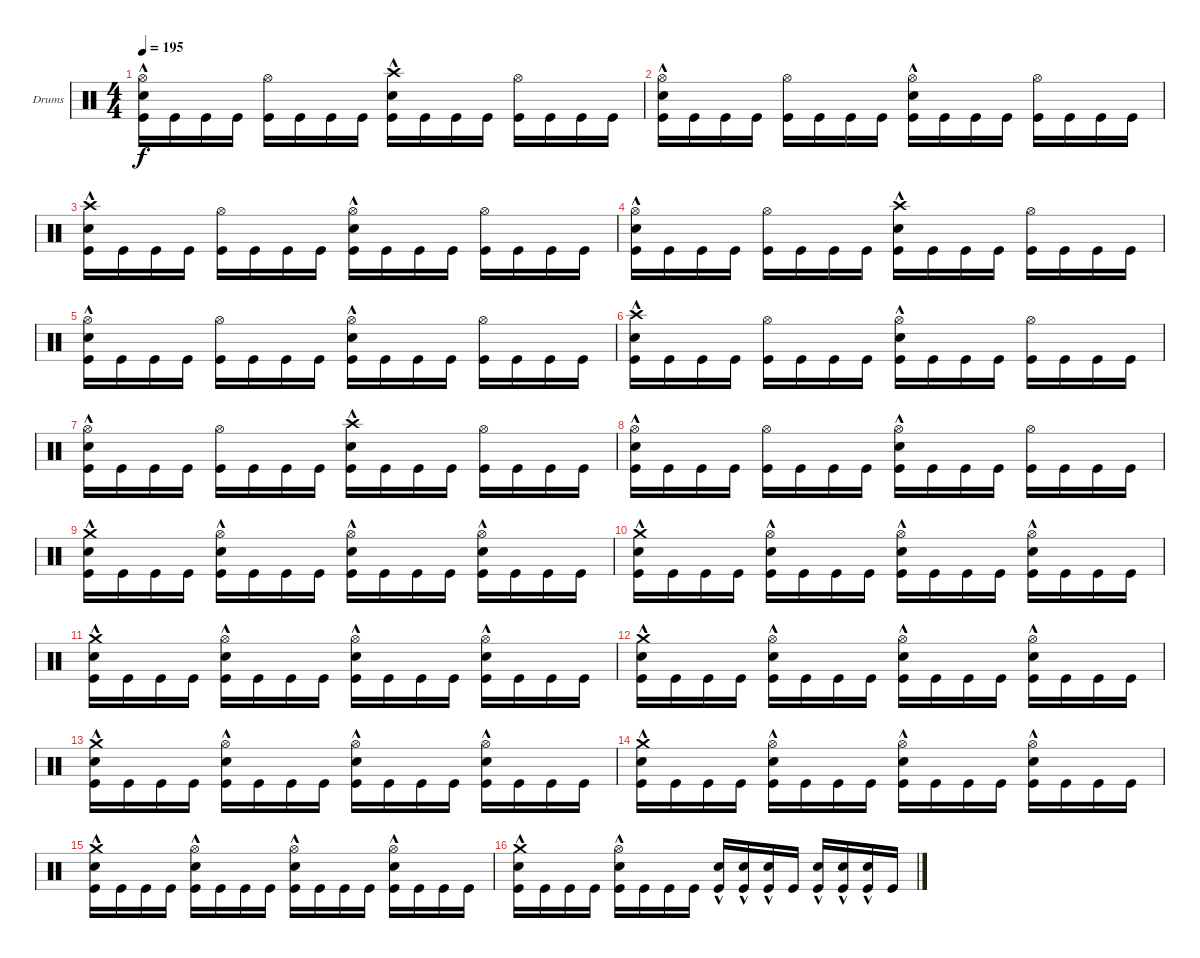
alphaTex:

\defaultSystemsLayout 4
\bracketExtendMode groupsimilarinstruments
\firstSystemTrackNameOrientation horizontal
\otherSystemsTrackNameOrientation horizontal
\track ("Drumkit" "Drums") {instrument percussion}
\staff {score}
\articulation defaults
\ts (4 4)
\tempo 195
\clef neutral
\ks c
("Kick (hit)" "Snare (hit) 2"{hac} "Hi-Hat (open)").16{dy f} "Kick (hit)".16 "Kick (hit)".16 "Kick (hit)".16 ("Kick (hit)" "Hi-Hat (open)").16 "Kick (hit)".16 "Kick (hit)".16 "Kick (hit)".16 ("Kick (hit)" "Snare (hit) 2"{hac} "Crash high (hit)").16 "Kick (hit)".16 "Kick (hit)".16 "Kick (hit)".16 ("Kick (hit)" "Hi-Hat (open)").16 "Kick (hit)".16 "Kick (hit)".16 "Kick (hit)".16 |
("Kick (hit)" "Snare (hit) 2"{hac} "Hi-Hat (open)").16 "Kick (hit)".16 "Kick (hit)".16 "Kick (hit)".16 ("Kick (hit)" "Hi-Hat (open)").16 "Kick (hit)".16 "Kick (hit)".16 "Kick (hit)".16 ("Kick (hit)" "Snare (hit) 2"{hac} "Hi-Hat (open)").16 "Kick (hit)".16 "Kick (hit)".16 "Kick (hit)".16 ("Kick (hit)" "Hi-Hat (open)").16 "Kick (hit)".16 "Kick (hit)".16 "Kick (hit)".16 |
("Kick (hit)" "Snare (hit) 2"{hac} "Crash high (hit)").16 "Kick (hit)".16 "Kick (hit)".16 "Kick (hit)".16 ("Kick (hit)" "Hi-Hat (open)").16 "Kick (hit)".16 "Kick (hit)".16 "Kick (hit)".16 ("Kick (hit)" "Hi-Hat (open)" "Snare (hit) 2"{hac}).16 "Kick (hit)".16 "Kick (hit)".16 "Kick (hit)".16 ("Kick (hit)" "Hi-Hat (open)").16 "Kick (hit)".16 "Kick (hit)".16 "Kick (hit)".16 |
("Kick (hit)" "Snare (hit) 2"{hac} "Hi-Hat (open)").16 "Kick (hit)".16 "Kick (hit)".16 "Kick (hit)".16 ("Kick (hit)" "Hi-Hat (open)").16 "Kick (hit)".16 "Kick (hit)".16 "Kick (hit)".16 ("Kick (hit)" "Snare (hit) 2"{hac} "Crash high (hit)").16 "Kick (hit)".16 "Kick (hit)".16 "Kick (hit)".16 ("Kick (hit)" "Hi-Hat (open)").16 "Kick (hit)".16 "Kick (hit)".16 "Kick (hit)".16 |
("Kick (hit)" "Snare (hit) 2"{hac} "Hi-Hat (open)").16 "Kick (hit)".16 "Kick (hit)".16 "Kick (hit)".16 ("Kick (hit)" "Hi-Hat (open)").16 "Kick (hit)".16 "Kick (hit)".16 "Kick (hit)".16 ("Kick (hit)" "Snare (hit) 2"{hac} "Hi-Hat (open)").16 "Kick (hit)".16 "Kick (hit)".16 "Kick (hit)".16 ("Kick (hit)" "Hi-Hat (open)").16 "Kick (hit)".16 "Kick (hit)".16 "Kick (hit)".16 |
("Kick (hit)" "Snare (hit) 2"{hac} "Crash high (hit)").16 "Kick (hit)".16 "Kick (hit)".16 "Kick (hit)".16 ("Kick (hit)" "Hi-Hat (open)").16 "Kick (hit)".16 "Kick (hit)".16 "Kick (hit)".16 ("Kick (hit)" "Hi-Hat (open)" "Snare (hit) 2"{hac}).16 "Kick (hit)".16 "Kick (hit)".16 "Kick (hit)".16 ("Kick (hit)" "Hi-Hat (open)").16 "Kick (hit)".16 "Kick (hit)".16 "Kick (hit)".16 |
("Kick (hit)" "Snare (hit) 2"{hac} "Hi-Hat (open)").16 "Kick (hit)".16 "Kick (hit)".16 "Kick (hit)".16 ("Kick (hit)" "Hi-Hat (open)").16 "Kick (hit)".16 "Kick (hit)".16 "Kick (hit)".16 ("Kick (hit)" "Snare (hit) 2"{hac} "Crash high (hit)").16 "Kick (hit)".16 "Kick (hit)".16 "Kick (hit)".16 ("Kick (hit)" "Hi-Hat (open)").16 "Kick (hit)".16 "Kick (hit)".16 "Kick (hit)".16 |
("Kick (hit)" "Snare (hit) 2"{hac} "Hi-Hat (open)").16 "Kick (hit)".16 "Kick (hit)".16 "Kick (hit)".16 ("Kick (hit)" "Hi-Hat (open)").16 "Kick (hit)".16 "Kick (hit)".16 "Kick (hit)".16 ("Kick (hit)" "Snare (hit) 2"{hac} "Hi-Hat (open)").16 "Kick (hit)".16 "Kick (hit)".16 "Kick (hit)".16 ("Kick (hit)" "Hi-Hat (open)").16 "Kick (hit)".16 "Kick (hit)".16 "Kick (hit)".16 |
("Kick (hit)" "Crash medium (hit)" "Snare (hit) 2"{hac}).16 "Kick (hit)".16 "Kick (hit)".16 "Kick (hit)".16 ("Kick (hit)" "Snare (hit) 2"{hac} "Hi-Hat (open)").16 "Kick (hit)".16 "Kick (hit)".16 "Kick (hit)".16 ("Kick (hit)" "Snare (hit) 2"{hac} "Hi-Hat (open)").16 "Kick (hit)".16 "Kick (hit)".16 "Kick (hit)".16 ("Kick (hit)" "Snare (hit) 2"{hac} "Hi-Hat (open)").16 "Kick (hit)".16 "Kick (hit)".16 "Kick (hit)".16 |
("Kick (hit)" "Crash medium (hit)" "Snare (hit) 2"{hac}).16 "Kick (hit)".16 "Kick (hit)".16 "Kick (hit)".16 ("Kick (hit)" "Snare (hit) 2"{hac} "Hi-Hat (open)").16 "Kick (hit)".16 "Kick (hit)".16 "Kick (hit)".16 ("Kick (hit)" "Snare (hit) 2"{hac} "Hi-Hat (open)").16 "Kick (hit)".16 "Kick (hit)".16 "Kick (hit)".16 ("Kick (hit)" "Snare (hit) 2"{hac} "Hi-Hat (open)").16 "Kick (hit)".16 "Kick (hit)".16 "Kick (hit)".16 |
("Kick (hit)" "Crash medium (hit)" "Snare (hit) 2"{hac}).16 "Kick (hit)".16 "Kick (hit)".16 "Kick (hit)".16 ("Kick (hit)" "Snare (hit) 2"{hac} "Hi-Hat (open)").16 "Kick (hit)".16 "Kick (hit)".16 "Kick (hit)".16 ("Kick (hit)" "Snare (hit) 2"{hac} "Hi-Hat (open)").16 "Kick (hit)".16 "Kick (hit)".16 "Kick (hit)".16 ("Kick (hit)" "Snare (hit) 2"{hac} "Hi-Hat (open)").16 "Kick (hit)".16 "Kick (hit)".16 "Kick (hit)".16 |
("Kick (hit)" "Crash medium (hit)" "Snare (hit) 2"{hac}).16 "Kick (hit)".16 "Kick (hit)".16 "Kick (hit)".16 ("Kick (hit)" "Snare (hit) 2"{hac} "Hi-Hat (open)").16 "Kick (hit)".16 "Kick (hit)".16 "Kick (hit)".16 ("Kick (hit)" "Snare (hit) 2"{hac} "Hi-Hat (open)").16 "Kick (hit)".16 "Kick (hit)".16 "Kick (hit)".16 ("Kick (hit)" "Snare (hit) 2"{hac} "Hi-Hat (open)").16 "Kick (hit)".16 "Kick (hit)".16 "Kick (hit)".16 |
("Kick (hit)" "Crash medium (hit)" "Snare (hit) 2"{hac}).16 "Kick (hit)".16 "Kick (hit)".16 "Kick (hit)".16 ("Kick (hit)" "Snare (hit) 2"{hac} "Hi-Hat (open)").16 "Kick (hit)".16 "Kick (hit)".16 "Kick (hit)".16 ("Kick (hit)" "Snare (hit) 2"{hac} "Hi-Hat (open)").16 "Kick (hit)".16 "Kick (hit)".16 "Kick (hit)".16 ("Kick (hit)" "Snare (hit) 2"{hac} "Hi-Hat (open)").16 "Kick (hit)".16 "Kick (hit)".16 "Kick (hit)".16 |
("Kick (hit)" "Crash medium (hit)" "Snare (hit) 2"{hac}).16 "Kick (hit)".16 "Kick (hit)".16 "Kick (hit)".16 ("Kick (hit)" "Snare (hit) 2"{hac} "Hi-Hat (open)").16 "Kick (hit)".16 "Kick (hit)".16 "Kick (hit)".16 ("Kick (hit)" "Snare (hit) 2"{hac} "Hi-Hat (open)").16 "Kick (hit)".16 "Kick (hit)".16 "Kick (hit)".16 ("Kick (hit)" "Snare (hit) 2"{hac} "Hi-Hat (open)").16 "Kick (hit)".16 "Kick (hit)".16 "Kick (hit)".16 |
("Kick (hit)" "Crash medium (hit)" "Snare (hit) 2"{hac}).16 "Kick (hit)".16 "Kick (hit)".16 "Kick (hit)".16 ("Kick (hit)" "Snare (hit) 2"{hac} "Hi-Hat (open)").16 "Kick (hit)".16 "Kick (hit)".16 "Kick (hit)".16 ("Kick (hit)" "Snare (hit) 2"{hac} "Hi-Hat (open)").16 "Kick (hit)".16 "Kick (hit)".16 "Kick (hit)".16 ("Kick (hit)" "Snare (hit) 2"{hac} "Hi-Hat (open)").16 "Kick (hit)".16 "Kick (hit)".16 "Kick (hit)".16 |
("Kick (hit)" "Crash medium (hit)" "Snare (hit) 2"{hac}).16 "Kick (hit)".16 "Kick (hit)".16 "Kick (hit)".16 ("Kick (hit)" "Snare (hit) 2"{hac} "Hi-Hat (open)").16 "Kick (hit)".16 "Kick (hit)".16 "Kick (hit)".16 ("Kick (hit)" "Snare (hit) 2"{hac}).16 ("Kick (hit)" "Snare (hit) 2"{hac}).16 ("Kick (hit)" "Snare (hit) 2"{hac}).16 "Kick (hit)".16 ("Kick (hit)" "Snare (hit) 2"{hac}).16 ("Kick (hit)" "Snare (hit) 2"{hac}).16 ("Kick (hit)" "Snare (hit) 2"{hac}).16 "Kick (hit)".16
